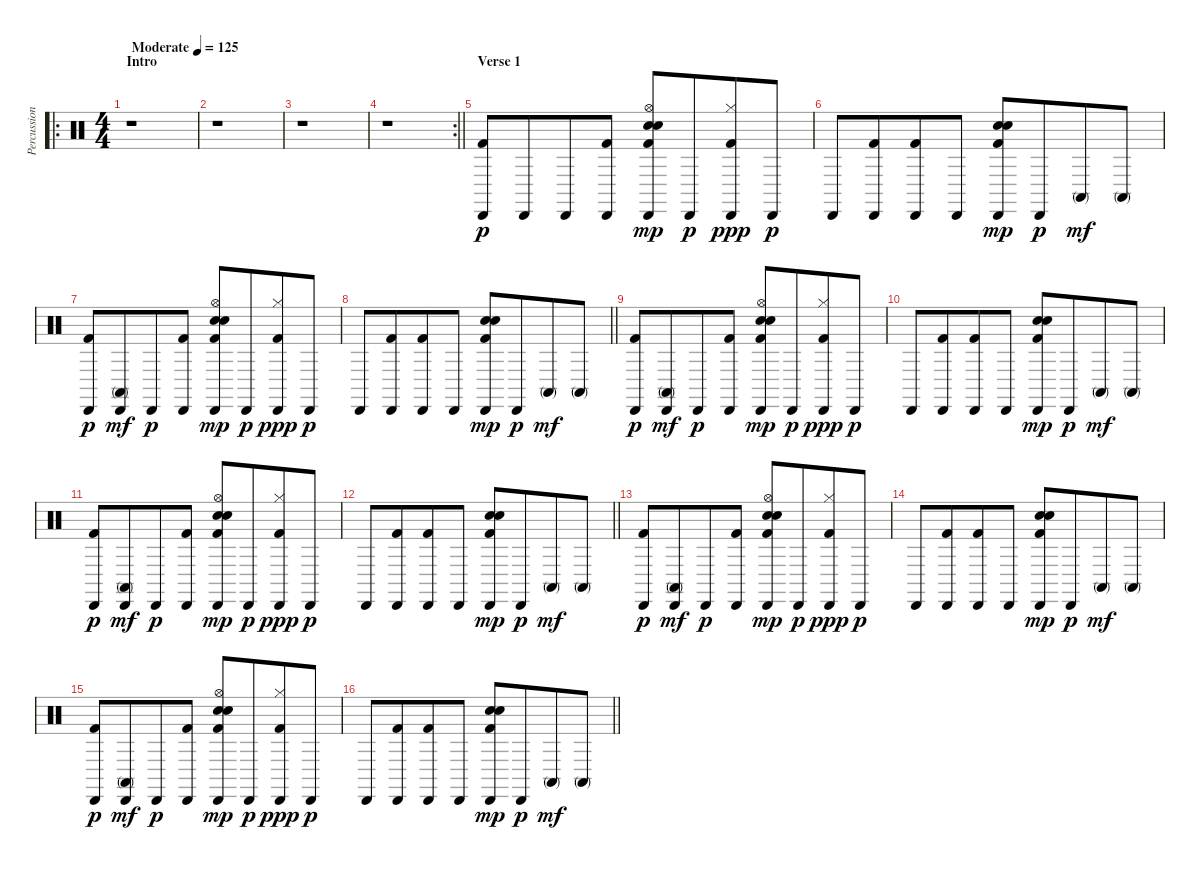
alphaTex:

\track ("Percussion" "Percussion") {instrument percussion}
\staff {score}
\articulation defaults
\ro
\ts (4 4)
\section ("" "Intro")
\tempo (125 "Moderate")
\clef neutral
\ks c
r.1{dy p} |
r.1 |
r.1 |
\rc 2
\barLineRight lightlight
r.1 |
\section ("" "Verse 1")
("Cabasa (hit)" "Kick (hit) 2").8 "Cabasa (hit)".8{beam merge} "Cabasa (hit)".8 ("Cabasa (hit)" "Kick (hit) 2").8 ("Cabasa (hit)" "Hi-Hat (open)" "Hand Clap (hit)" "Electric Snare (hit)" "Kick (hit) 2").8{dy mp} "Cabasa (hit)".8{dy p beam merge} ("Cabasa (hit)" "Hi-Hat (closed)" "Kick (hit) 2").8{dy ppp} "Cabasa (hit)".8{dy p} |
"Cabasa (hit)".8 ("Cabasa (hit)" "Kick (hit) 2").8{beam merge} ("Cabasa (hit)" "Kick (hit) 2").8 "Cabasa (hit)".8 ("Cabasa (hit)" "Hand Clap (hit)" "Electric Snare (hit)" "Kick (hit) 2").8{dy mp} "Cabasa (hit)".8{dy p beam merge} "Conga high (mute)".8{dy mf} "Conga high (mute)".8 |
("Cabasa (hit)" "Kick (hit) 2").8{dy p} ("Cabasa (hit)" "Conga high (mute)").8{dy mf beam merge} "Cabasa (hit)".8{dy p} ("Cabasa (hit)" "Kick (hit) 2").8 ("Cabasa (hit)" "Hi-Hat (open)" "Hand Clap (hit)" "Electric Snare (hit)" "Kick (hit) 2").8{dy mp} "Cabasa (hit)".8{dy p beam merge} ("Cabasa (hit)" "Hi-Hat (closed)" "Kick (hit) 2").8{dy ppp} "Cabasa (hit)".8{dy p} |
\barLineRight lightlight "Cabasa (hit)".8
("Cabasa (hit)" "Kick (hit) 2").8{beam merge} ("Cabasa (hit)" "Kick (hit) 2").8 "Cabasa (hit)".8 ("Cabasa (hit)" "Hand Clap (hit)" "Electric Snare (hit)" "Kick (hit) 2").8{dy mp} "Cabasa (hit)".8{dy p beam merge} "Conga high (mute)".8{dy mf} "Conga high (mute)".8 |
("Cabasa (hit)" "Kick (hit) 2").8{dy p} ("Cabasa (hit)" "Conga high (mute)").8{dy mf beam merge} "Cabasa (hit)".8{dy p} ("Cabasa (hit)" "Kick (hit) 2").8 ("Cabasa (hit)" "Hi-Hat (open)" "Hand Clap (hit)" "Electric Snare (hit)" "Kick (hit) 2").8{dy mp} "Cabasa (hit)".8{dy p beam merge} ("Cabasa (hit)" "Hi-Hat (closed)" "Kick (hit) 2").8{dy ppp} "Cabasa (hit)".8{dy p} |
"Cabasa (hit)".8 ("Cabasa (hit)" "Kick (hit) 2").8{beam merge} ("Cabasa (hit)" "Kick (hit) 2").8 "Cabasa (hit)".8 ("Cabasa (hit)" "Hand Clap (hit)" "Electric Snare (hit)" "Kick (hit) 2").8{dy mp} "Cabasa (hit)".8{dy p beam merge} "Conga high (mute)".8{dy mf} "Conga high (mute)".8 |
("Cabasa (hit)" "Kick (hit) 2").8{dy p} ("Cabasa (hit)" "Conga high (mute)").8{dy mf beam merge} "Cabasa (hit)".8{dy p} ("Cabasa (hit)" "Kick (hit) 2").8 ("Cabasa (hit)" "Hi-Hat (open)" "Hand Clap (hit)" "Electric Snare (hit)" "Kick (hit) 2").8{dy mp} "Cabasa (hit)".8{dy p beam merge} ("Cabasa (hit)" "Hi-Hat (closed)" "Kick (hit) 2").8{dy ppp} "Cabasa (hit)".8{dy p} |
\barLineRight lightlight "Cabasa (hit)".8
("Cabasa (hit)" "Kick (hit) 2").8{beam merge} ("Cabasa (hit)" "Kick (hit) 2").8 "Cabasa (hit)".8 ("Cabasa (hit)" "Hand Clap (hit)" "Electric Snare (hit)" "Kick (hit) 2").8{dy mp} "Cabasa (hit)".8{dy p beam merge} "Conga high (mute)".8{dy mf} "Conga high (mute)".8 |
("Cabasa (hit)" "Kick (hit) 2").8{dy p} ("Cabasa (hit)" "Conga high (mute)").8{dy mf beam merge} "Cabasa (hit)".8{dy p} ("Cabasa (hit)" "Kick (hit) 2").8 ("Cabasa (hit)" "Hi-Hat (open)" "Hand Clap (hit)" "Electric Snare (hit)" "Kick (hit) 2").8{dy mp} "Cabasa (hit)".8{dy p beam merge} ("Cabasa (hit)" "Hi-Hat (closed)" "Kick (hit) 2").8{dy ppp} "Cabasa (hit)".8{dy p} |
"Cabasa (hit)".8 ("Cabasa (hit)" "Kick (hit) 2").8{beam merge} ("Cabasa (hit)" "Kick (hit) 2").8 "Cabasa (hit)".8 ("Cabasa (hit)" "Hand Clap (hit)" "Electric Snare (hit)" "Kick (hit) 2").8{dy mp} "Cabasa (hit)".8{dy p beam merge} "Conga high (mute)".8{dy mf} "Conga high (mute)".8 |
("Cabasa (hit)" "Kick (hit) 2").8{dy p} ("Cabasa (hit)" "Conga high (mute)").8{dy mf beam merge} "Cabasa (hit)".8{dy p} ("Cabasa (hit)" "Kick (hit) 2").8 ("Cabasa (hit)" "Hi-Hat (open)" "Hand Clap (hit)" "Electric Snare (hit)" "Kick (hit) 2").8{dy mp} "Cabasa (hit)".8{dy p beam merge} ("Cabasa (hit)" "Hi-Hat (closed)" "Kick (hit) 2").8{dy ppp} "Cabasa (hit)".8{dy p} |
\barLineRight lightlight "Cabasa (hit)".8
("Cabasa (hit)" "Kick (hit) 2").8{beam merge} ("Cabasa (hit)" "Kick (hit) 2").8 "Cabasa (hit)".8 ("Cabasa (hit)" "Hand Clap (hit)" "Electric Snare (hit)" "Kick (hit) 2").8{dy mp} "Cabasa (hit)".8{dy p beam merge} "Conga high (mute)".8{dy mf} "Conga high (mute)".8
